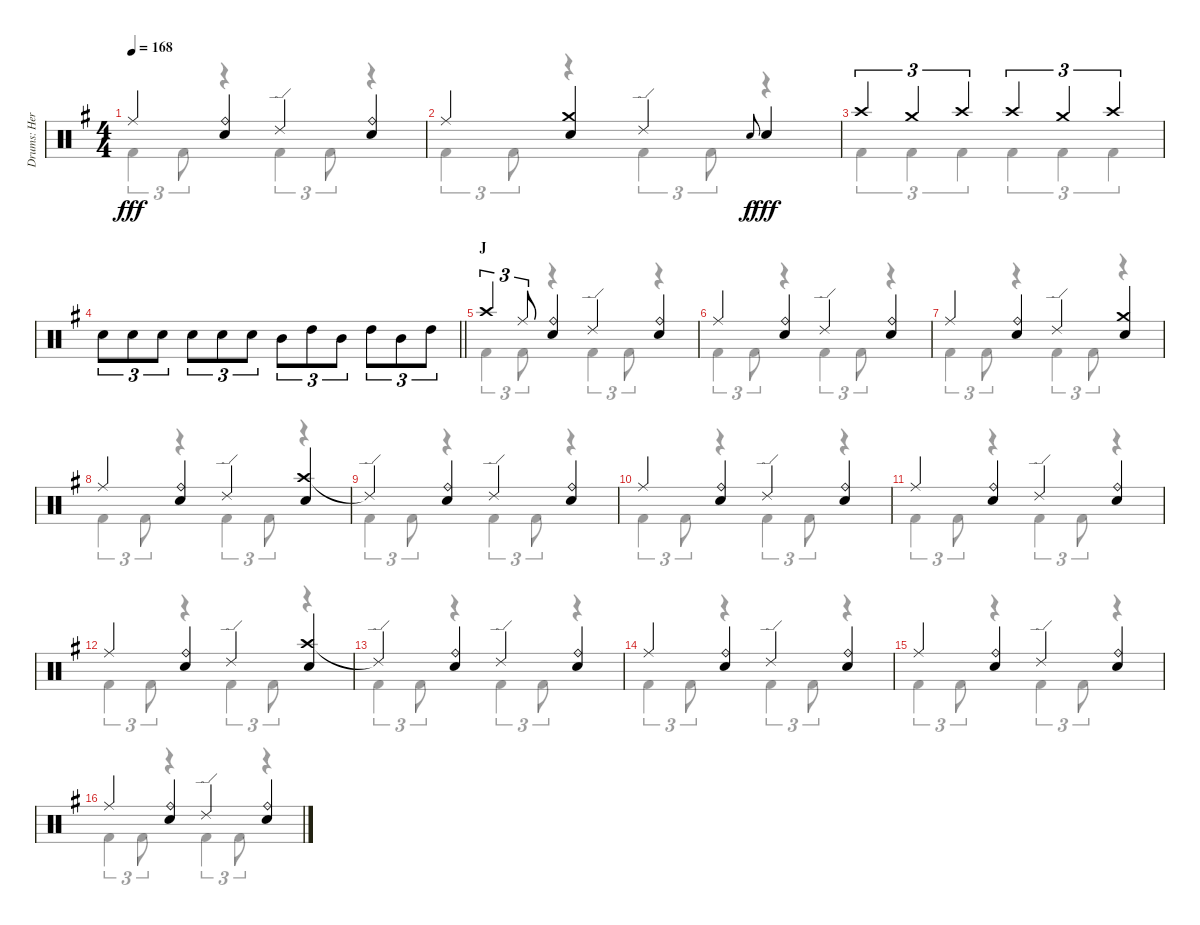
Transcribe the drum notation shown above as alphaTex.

\track ("Drums: Herman" "Drums: Her") {instrument percussion}
\staff {score}
\articulation defaults
\voice
\ts (4 4)
\tempo 168
\clef neutral
\ks g "Ride (middle)".4{dy fff}
("Ride (bell)" "Snare (hit) 2").4 "Ride (edge) 2".4 ("Ride (bell)" "Snare (hit) 2").4 |
"Ride (middle)".4 ("Crash medium (hit)" "Snare (hit) 2").4 "Ride (edge) 2".4 "Electric Snare (hit)".8{gr onbeat dy f} "Snare (hit) 2".4{dy fff} |
"Crash high (hit)".4{tu (3 2)} "Crash medium (hit)".4{tu (3 2)} "Crash high (hit)".4{tu (3 2)} "Crash high (hit)".4{tu (3 2)} "Crash medium (hit)".4{tu (3 2)} "Crash high (hit)".4{tu (3 2)} |
\barLineRight lightlight "Snare (hit) 2".8{tu (3 2)} "Snare (hit) 2".8{tu (3 2)} "Snare (hit) 2".8{tu (3 2)} "Snare (hit) 2".8{tu (3 2)} "Snare (hit) 2".8{tu (3 2)} "Snare (hit) 2".8{tu (3 2)} "Mid Tom (hit)".8{tu (3 2)} "High Tom (hit)".8{tu (3 2)} "Mid Tom (hit)".8{tu (3 2)} "High Tom (hit)".8{tu (3 2)} "Mid Tom (hit)".8{tu (3 2)} "High Tom (hit)".8{tu (3 2)}
|
\section ("" "J")
"Crash high (hit)".4{tu (3 2)} "Ride (middle)".8{tu (3 2)} ("Ride (bell)" "Snare (hit) 2").4 "Ride (edge) 2".4 ("Ride (bell)" "Snare (hit) 2").4 |
"Ride (middle)".4 ("Ride (bell)" "Snare (hit) 2").4 "Ride (edge) 2".4 ("Ride (bell)" "Snare (hit) 2").4 |
"Ride (middle)".4 ("Ride (bell)" "Snare (hit) 2").4 "Ride (edge) 2".4 ("Crash medium (hit)" "Snare (hit) 2").4 |
"Ride (middle)".4 ("Ride (bell)" "Snare (hit) 2").4 "Ride (edge) 2".4 ("Crash high (hit)" "Snare (hit) 2").4 |
"Ride (edge) 2"{t}.4 ("Ride (bell)" "Snare (hit) 2").4 "Ride (edge) 2".4 ("Ride (bell)" "Snare (hit) 2").4 |
"Ride (middle)".4 ("Ride (bell)" "Snare (hit) 2").4 "Ride (edge) 2".4 ("Ride (bell)" "Snare (hit) 2").4 |
"Ride (middle)".4 ("Ride (bell)" "Snare (hit) 2").4 "Ride (edge) 2".4 ("Ride (bell)" "Snare (hit) 2").4 |
"Ride (middle)".4 ("Ride (bell)" "Snare (hit) 2").4 "Ride (edge) 2".4 ("Crash high (hit)" "Snare (hit) 2").4 |
"Ride (edge) 2"{t}.4 ("Ride (bell)" "Snare (hit) 2").4 "Ride (edge) 2".4 ("Ride (bell)" "Snare (hit) 2").4 |
"Ride (middle)".4 ("Ride (bell)" "Snare (hit) 2").4 "Ride (edge) 2".4 ("Ride (bell)" "Snare (hit) 2").4 |
"Ride (middle)".4 ("Ride (bell)" "Snare (hit) 2").4 "Ride (edge) 2".4 ("Ride (bell)" "Snare (hit) 2").4 |
"Ride (middle)".4 ("Ride (bell)" "Snare (hit) 2").4 "Ride (edge) 2".4 ("Ride (bell)" "Snare (hit) 2").4
\voice
\clef neutral
\ottava regular
\simile none
\ks g "Kick (hit) 2".4{tu (3 2) dy fff} "Kick (hit) 2".8{tu (3 2)}
r.4 "Kick (hit) 2".4{tu (3 2)} "Kick (hit) 2".8{tu (3 2)} r.4 |
"Kick (hit) 2".4{tu (3 2)} "Kick (hit) 2".8{tu (3 2)} r.4 "Kick (hit) 2".4{tu (3 2)} "Kick (hit) 2".8{tu (3 2)} r.4 |
"Kick (hit) 2".4{tu (3 2)} "Kick (hit) 2".4{tu (3 2)} "Kick (hit) 2".4{tu (3 2)} "Kick (hit) 2".4{tu (3 2)} "Kick (hit) 2".4{tu (3 2)} "Kick (hit) 2".4{tu (3 2)} |
\barLineRight lightlight
|
"Kick (hit) 2".4{tu (3 2)} "Kick (hit) 2".8{tu (3 2)} r.4 "Kick (hit) 2".4{tu (3 2)} "Kick (hit) 2".8{tu (3 2)} r.4 |
"Kick (hit) 2".4{tu (3 2)} "Kick (hit) 2".8{tu (3 2)} r.4 "Kick (hit) 2".4{tu (3 2)} "Kick (hit) 2".8{tu (3 2)} r.4 |
"Kick (hit) 2".4{tu (3 2)} "Kick (hit) 2".8{tu (3 2)} r.4 "Kick (hit) 2".4{tu (3 2)} "Kick (hit) 2".8{tu (3 2)} r.4 |
"Kick (hit) 2".4{tu (3 2)} "Kick (hit) 2".8{tu (3 2)} r.4 "Kick (hit) 2".4{tu (3 2)} "Kick (hit) 2".8{tu (3 2)} r.4 |
"Kick (hit) 2".4{tu (3 2)} "Kick (hit) 2".8{tu (3 2)} r.4 "Kick (hit) 2".4{tu (3 2)} "Kick (hit) 2".8{tu (3 2)} r.4 |
"Kick (hit) 2".4{tu (3 2)} "Kick (hit) 2".8{tu (3 2)} r.4 "Kick (hit) 2".4{tu (3 2)} "Kick (hit) 2".8{tu (3 2)} r.4 |
"Kick (hit) 2".4{tu (3 2)} "Kick (hit) 2".8{tu (3 2)} r.4 "Kick (hit) 2".4{tu (3 2)} "Kick (hit) 2".8{tu (3 2)} r.4 |
"Kick (hit) 2".4{tu (3 2)} "Kick (hit) 2".8{tu (3 2)} r.4 "Kick (hit) 2".4{tu (3 2)} "Kick (hit) 2".8{tu (3 2)} r.4 |
"Kick (hit) 2".4{tu (3 2)} "Kick (hit) 2".8{tu (3 2)} r.4 "Kick (hit) 2".4{tu (3 2)} "Kick (hit) 2".8{tu (3 2)} r.4 |
"Kick (hit) 2".4{tu (3 2)} "Kick (hit) 2".8{tu (3 2)} r.4 "Kick (hit) 2".4{tu (3 2)} "Kick (hit) 2".8{tu (3 2)} r.4 |
"Kick (hit) 2".4{tu (3 2)} "Kick (hit) 2".8{tu (3 2)} r.4 "Kick (hit) 2".4{tu (3 2)} "Kick (hit) 2".8{tu (3 2)} r.4 |
"Kick (hit) 2".4{tu (3 2)} "Kick (hit) 2".8{tu (3 2)} r.4 "Kick (hit) 2".4{tu (3 2)} "Kick (hit) 2".8{tu (3 2)} r.4
